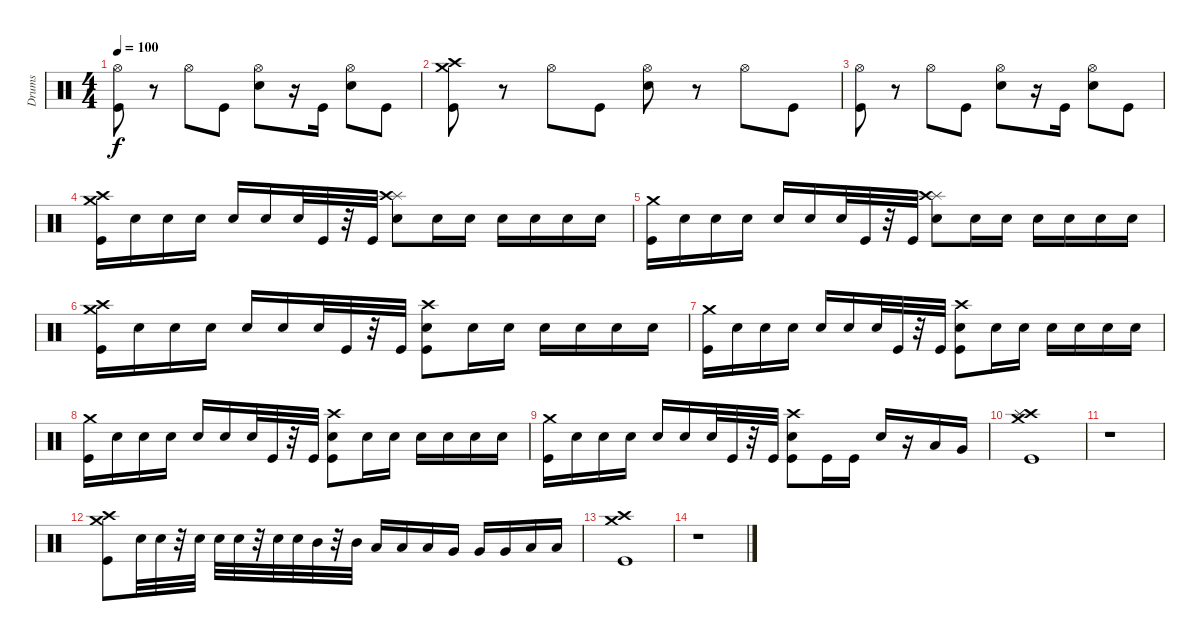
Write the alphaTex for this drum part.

\track ("Drums" "Drums") {instrument percussion}
\staff {score}
\articulation defaults
\ts (4 4)
\tempo 100
\clef neutral
\ks c
("Kick (hit)" "Hi-Hat (open)").8{dy f} r.8 "Hi-Hat (open)".8 "Kick (hit)".8 ("Electric Snare (hit)" "Hi-Hat (open)").8 r.16 "Kick (hit)".16 ("Electric Snare (hit)" "Hi-Hat (open)").8 "Kick (hit)".8 |
("Kick (hit)" "Crash medium (hit)" "Crash high (hit)").8 r.8 "Hi-Hat (open)".8 "Kick (hit)".8 ("Electric Snare (hit)" "Hi-Hat (open)").8 r.8 "Hi-Hat (open)".8 "Kick (hit)".8 |
("Kick (hit)" "Hi-Hat (open)").8 r.8 "Hi-Hat (open)".8 "Kick (hit)".8 ("Electric Snare (hit)" "Hi-Hat (open)").8 r.16 "Kick (hit)".16 ("Electric Snare (hit)" "Hi-Hat (open)").8 "Kick (hit)".8 |
("Kick (hit)" "Crash medium (hit)" "Crash high (hit)").16 "Electric Snare (hit)".16 "Electric Snare (hit)".16 "Electric Snare (hit)".16 "Electric Snare (hit)".16 "Electric Snare (hit)".16 "Electric Snare (hit)".32 "Kick (hit)".32 r.32 "Kick (hit)".32 ("Electric Snare (hit)" "Splash (hit)" "Crash high (hit)").8 "Electric Snare (hit)".16 "Electric Snare (hit)".16 "Electric Snare (hit)".16 "Electric Snare (hit)".16 "Electric Snare (hit)".16 "Electric Snare (hit)".16 |
("Kick (hit)" "Crash medium (hit)").16 "Electric Snare (hit)".16 "Electric Snare (hit)".16 "Electric Snare (hit)".16 "Electric Snare (hit)".16 "Electric Snare (hit)".16 "Electric Snare (hit)".32 "Kick (hit)".32 r.32 "Kick (hit)".32 ("Electric Snare (hit)" "Splash (hit)" "Crash high (hit)").8 "Electric Snare (hit)".16 "Electric Snare (hit)".16 "Electric Snare (hit)".16 "Electric Snare (hit)".16 "Electric Snare (hit)".16 "Electric Snare (hit)".16 |
("Kick (hit)" "Crash medium (hit)" "Crash high (hit)").16 "Electric Snare (hit)".16 "Electric Snare (hit)".16 "Electric Snare (hit)".16 "Electric Snare (hit)".16 "Electric Snare (hit)".16 "Electric Snare (hit)".32 "Kick (hit)".32 r.32 "Kick (hit)".32 ("Electric Snare (hit)" "Kick (hit)" "Crash high (hit)").8 "Electric Snare (hit)".16 "Electric Snare (hit)".16 "Electric Snare (hit)".16 "Electric Snare (hit)".16 "Electric Snare (hit)".16 "Electric Snare (hit)".16 |
("Kick (hit)" "Crash medium (hit)").16 "Electric Snare (hit)".16 "Electric Snare (hit)".16 "Electric Snare (hit)".16 "Electric Snare (hit)".16 "Electric Snare (hit)".16 "Electric Snare (hit)".32 "Kick (hit)".32 r.32 "Kick (hit)".32 ("Electric Snare (hit)" "Kick (hit)" "Crash high (hit)").8 "Electric Snare (hit)".16 "Electric Snare (hit)".16 "Electric Snare (hit)".16 "Electric Snare (hit)".16 "Electric Snare (hit)".16 "Electric Snare (hit)".16 |
("Kick (hit)" "Crash medium (hit)").16 "Electric Snare (hit)".16 "Electric Snare (hit)".16 "Electric Snare (hit)".16 "Electric Snare (hit)".16 "Electric Snare (hit)".16 "Electric Snare (hit)".32 "Kick (hit)".32 r.32 "Kick (hit)".32 ("Electric Snare (hit)" "Kick (hit)" "Crash high (hit)").8 "Electric Snare (hit)".16 "Electric Snare (hit)".16 "Electric Snare (hit)".16 "Electric Snare (hit)".16 "Electric Snare (hit)".16 "Electric Snare (hit)".16 |
("Kick (hit)" "Crash medium (hit)").16 "Electric Snare (hit)".16 "Electric Snare (hit)".16 "Electric Snare (hit)".16 "Electric Snare (hit)".16 "Electric Snare (hit)".16 "Electric Snare (hit)".32 "Kick (hit)".32 r.32 "Kick (hit)".32 ("Electric Snare (hit)" "Kick (hit)" "Crash high (hit)").8 "Kick (hit)".16 "Kick (hit)".16 "Electric Snare (hit)".16 r.16 "Low Tom (hit)".16 "Very Low Tom (hit)".16 |
("Kick (hit)" "Crash medium (hit)" "Crash high (hit)" "Splash (hit)").1 |
r.1 |
("Kick (hit)" "Crash medium (hit)" "Crash high (hit)").8 "Electric Snare (hit)".32 "Electric Snare (hit)".32 r.32 "Electric Snare (hit)".32 "Electric Snare (hit)".32 "Electric Snare (hit)".32 r.32 "Electric Snare (hit)".32 "Electric Snare (hit)".32 "Mid Tom (hit)".32 r.32 "Mid Tom (hit)".32 "Low Tom (hit)".16 "Low Tom (hit)".16 "Low Tom (hit)".16 "Very Low Tom (hit)".16 "Very Low Tom (hit)".16 "Very Low Tom (hit)".16 "Low Floor Tom (hit)".16 "Low Floor Tom (hit)".16 |
("Kick (hit)" "Crash high (hit)" "Crash medium (hit)").1 |
r.1
